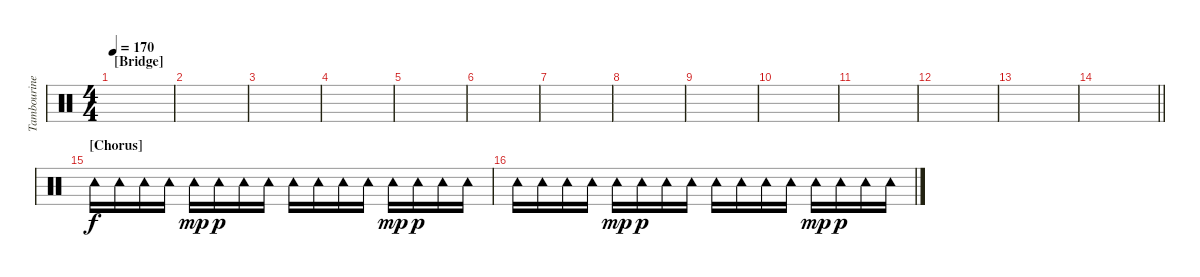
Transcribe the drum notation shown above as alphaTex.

\track ("Tambourine" "Tambourine") {instrument percussion}
\staff {score}
\articulation defaults
\ts (4 4)
\section ("" "[Bridge]")
\tempo 170
\clef neutral
\ks c
|
|
|
|
|
|
|
|
|
|
|
|
|
\barLineRight lightlight
|
\section ("" "[Chorus]")
"Tambourine (hit)".16 "Tambourine (hit)".16 "Tambourine (hit)".16 "Tambourine (hit)".16 "Tambourine (hit)".16{dy mp} "Tambourine (hit)".16{dy p} "Tambourine (hit)".16 "Tambourine (hit)".16 "Tambourine (hit)".16 "Tambourine (hit)".16 "Tambourine (hit)".16 "Tambourine (hit)".16 "Tambourine (hit)".16{dy mp} "Tambourine (hit)".16{dy p} "Tambourine (hit)".16 "Tambourine (hit)".16 |
"Tambourine (hit)".16 "Tambourine (hit)".16 "Tambourine (hit)".16 "Tambourine (hit)".16 "Tambourine (hit)".16{dy mp} "Tambourine (hit)".16{dy p} "Tambourine (hit)".16 "Tambourine (hit)".16 "Tambourine (hit)".16 "Tambourine (hit)".16 "Tambourine (hit)".16 "Tambourine (hit)".16 "Tambourine (hit)".16{dy mp} "Tambourine (hit)".16{dy p} "Tambourine (hit)".16 "Tambourine (hit)".16
